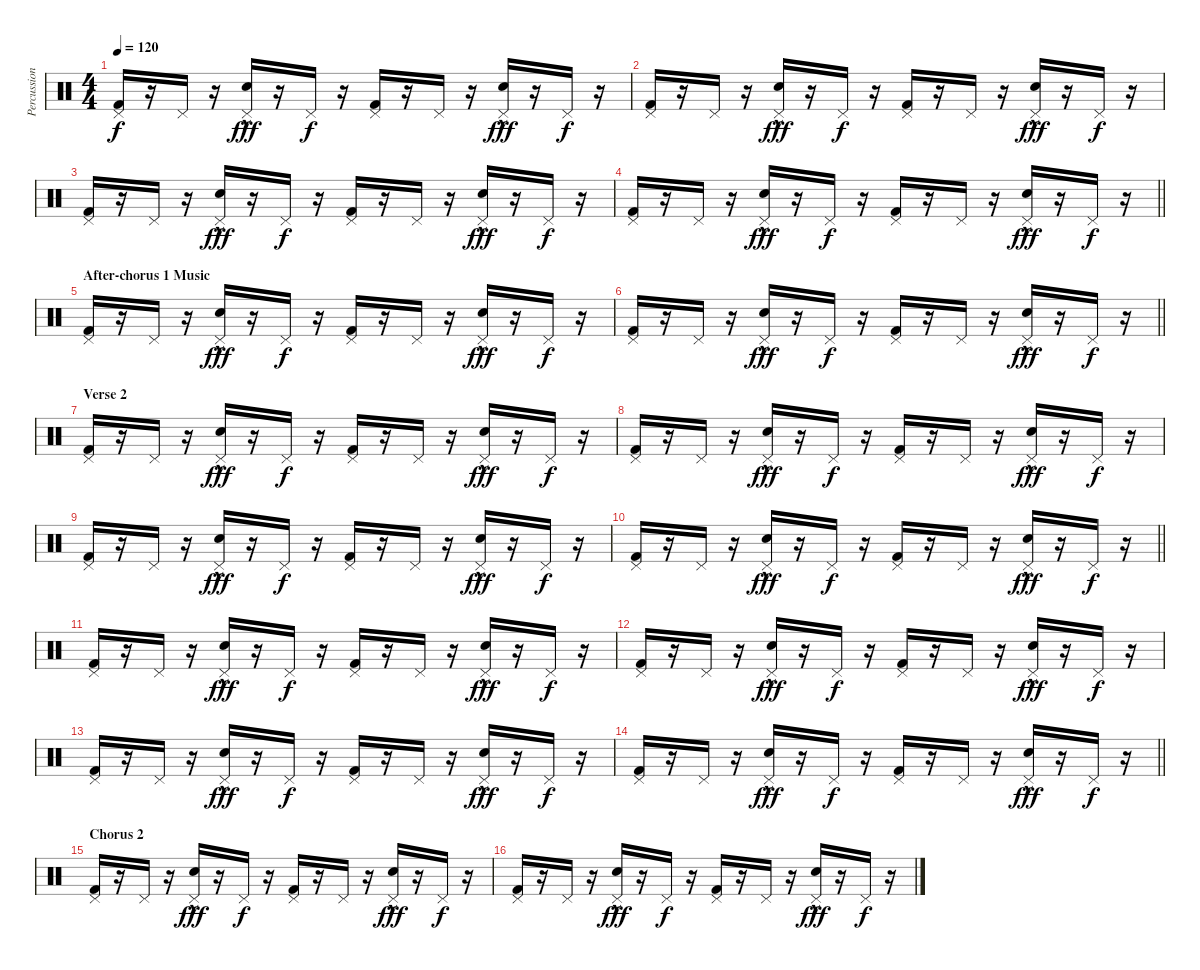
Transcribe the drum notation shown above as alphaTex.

\track ("Percussion" "Percussion") {instrument percussion}
\staff {score}
\articulation defaults
\ts (4 4)
\tempo 120
\clef neutral
\ks c
("Kick (hit) 2" "Pedal Hi-Hat (hit)").16{dy f} r.16 "Pedal Hi-Hat (hit)".16 r.16 ("Snare (hit) 2"{hac} "Pedal Hi-Hat (hit)").16{dy fff} r.16 "Pedal Hi-Hat (hit)".16{dy f} r.16 ("Kick (hit) 2" "Pedal Hi-Hat (hit)").16 r.16 "Pedal Hi-Hat (hit)".16 r.16 ("Snare (hit) 2"{hac} "Pedal Hi-Hat (hit)").16{dy fff} r.16 "Pedal Hi-Hat (hit)".16{dy f} r.16 |
("Kick (hit) 2" "Pedal Hi-Hat (hit)").16 r.16 "Pedal Hi-Hat (hit)".16 r.16 ("Snare (hit) 2"{hac} "Pedal Hi-Hat (hit)").16{dy fff} r.16 "Pedal Hi-Hat (hit)".16{dy f} r.16 ("Kick (hit) 2" "Pedal Hi-Hat (hit)").16 r.16 "Pedal Hi-Hat (hit)".16 r.16 ("Snare (hit) 2"{hac} "Pedal Hi-Hat (hit)").16{dy fff} r.16 "Pedal Hi-Hat (hit)".16{dy f} r.16 |
("Kick (hit) 2" "Pedal Hi-Hat (hit)").16 r.16 "Pedal Hi-Hat (hit)".16 r.16 ("Snare (hit) 2"{hac} "Pedal Hi-Hat (hit)").16{dy fff} r.16 "Pedal Hi-Hat (hit)".16{dy f} r.16 ("Kick (hit) 2" "Pedal Hi-Hat (hit)").16 r.16 "Pedal Hi-Hat (hit)".16 r.16 ("Snare (hit) 2"{hac} "Pedal Hi-Hat (hit)").16{dy fff} r.16 "Pedal Hi-Hat (hit)".16{dy f} r.16 |
\barLineRight lightlight
("Kick (hit) 2" "Pedal Hi-Hat (hit)").16 r.16 "Pedal Hi-Hat (hit)".16 r.16 ("Snare (hit) 2"{hac} "Pedal Hi-Hat (hit)").16{dy fff} r.16 "Pedal Hi-Hat (hit)".16{dy f} r.16 ("Kick (hit) 2" "Pedal Hi-Hat (hit)").16 r.16 "Pedal Hi-Hat (hit)".16 r.16 ("Snare (hit) 2"{hac} "Pedal Hi-Hat (hit)").16{dy fff} r.16 "Pedal Hi-Hat (hit)".16{dy f} r.16 |
\section ("" "After-chorus 1 Music")
("Kick (hit) 2" "Pedal Hi-Hat (hit)").16 r.16 "Pedal Hi-Hat (hit)".16 r.16 ("Snare (hit) 2"{hac} "Pedal Hi-Hat (hit)").16{dy fff} r.16 "Pedal Hi-Hat (hit)".16{dy f} r.16 ("Kick (hit) 2" "Pedal Hi-Hat (hit)").16 r.16 "Pedal Hi-Hat (hit)".16 r.16 ("Snare (hit) 2"{hac} "Pedal Hi-Hat (hit)").16{dy fff} r.16 "Pedal Hi-Hat (hit)".16{dy f} r.16 |
\barLineRight lightlight
("Kick (hit) 2" "Pedal Hi-Hat (hit)").16 r.16 "Pedal Hi-Hat (hit)".16 r.16 ("Snare (hit) 2"{hac} "Pedal Hi-Hat (hit)").16{dy fff} r.16 "Pedal Hi-Hat (hit)".16{dy f} r.16 ("Kick (hit) 2" "Pedal Hi-Hat (hit)").16 r.16 "Pedal Hi-Hat (hit)".16 r.16 ("Snare (hit) 2"{hac} "Pedal Hi-Hat (hit)").16{dy fff} r.16 "Pedal Hi-Hat (hit)".16{dy f} r.16 |
\section ("" "Verse 2")
("Kick (hit) 2" "Pedal Hi-Hat (hit)").16 r.16 "Pedal Hi-Hat (hit)".16 r.16 ("Snare (hit) 2"{hac} "Pedal Hi-Hat (hit)").16{dy fff} r.16 "Pedal Hi-Hat (hit)".16{dy f} r.16 ("Kick (hit) 2" "Pedal Hi-Hat (hit)").16 r.16 "Pedal Hi-Hat (hit)".16 r.16 ("Snare (hit) 2"{hac} "Pedal Hi-Hat (hit)").16{dy fff} r.16 "Pedal Hi-Hat (hit)".16{dy f} r.16 |
("Kick (hit) 2" "Pedal Hi-Hat (hit)").16 r.16 "Pedal Hi-Hat (hit)".16 r.16 ("Snare (hit) 2"{hac} "Pedal Hi-Hat (hit)").16{dy fff} r.16 "Pedal Hi-Hat (hit)".16{dy f} r.16 ("Kick (hit) 2" "Pedal Hi-Hat (hit)").16 r.16 "Pedal Hi-Hat (hit)".16 r.16 ("Snare (hit) 2"{hac} "Pedal Hi-Hat (hit)").16{dy fff} r.16 "Pedal Hi-Hat (hit)".16{dy f} r.16 |
("Kick (hit) 2" "Pedal Hi-Hat (hit)").16 r.16 "Pedal Hi-Hat (hit)".16 r.16 ("Snare (hit) 2"{hac} "Pedal Hi-Hat (hit)").16{dy fff} r.16 "Pedal Hi-Hat (hit)".16{dy f} r.16 ("Kick (hit) 2" "Pedal Hi-Hat (hit)").16 r.16 "Pedal Hi-Hat (hit)".16 r.16 ("Snare (hit) 2"{hac} "Pedal Hi-Hat (hit)").16{dy fff} r.16 "Pedal Hi-Hat (hit)".16{dy f} r.16 |
\barLineRight lightlight
("Kick (hit) 2" "Pedal Hi-Hat (hit)").16 r.16 "Pedal Hi-Hat (hit)".16 r.16 ("Snare (hit) 2"{hac} "Pedal Hi-Hat (hit)").16{dy fff} r.16 "Pedal Hi-Hat (hit)".16{dy f} r.16 ("Kick (hit) 2" "Pedal Hi-Hat (hit)").16 r.16 "Pedal Hi-Hat (hit)".16 r.16 ("Snare (hit) 2"{hac} "Pedal Hi-Hat (hit)").16{dy fff} r.16 "Pedal Hi-Hat (hit)".16{dy f} r.16 |
("Kick (hit) 2" "Pedal Hi-Hat (hit)").16 r.16 "Pedal Hi-Hat (hit)".16 r.16 ("Snare (hit) 2"{hac} "Pedal Hi-Hat (hit)").16{dy fff} r.16 "Pedal Hi-Hat (hit)".16{dy f} r.16 ("Kick (hit) 2" "Pedal Hi-Hat (hit)").16 r.16 "Pedal Hi-Hat (hit)".16 r.16 ("Snare (hit) 2"{hac} "Pedal Hi-Hat (hit)").16{dy fff} r.16 "Pedal Hi-Hat (hit)".16{dy f} r.16 |
("Kick (hit) 2" "Pedal Hi-Hat (hit)").16 r.16 "Pedal Hi-Hat (hit)".16 r.16 ("Snare (hit) 2"{hac} "Pedal Hi-Hat (hit)").16{dy fff} r.16 "Pedal Hi-Hat (hit)".16{dy f} r.16 ("Kick (hit) 2" "Pedal Hi-Hat (hit)").16 r.16 "Pedal Hi-Hat (hit)".16 r.16 ("Snare (hit) 2"{hac} "Pedal Hi-Hat (hit)").16{dy fff} r.16 "Pedal Hi-Hat (hit)".16{dy f} r.16 |
("Kick (hit) 2" "Pedal Hi-Hat (hit)").16 r.16 "Pedal Hi-Hat (hit)".16 r.16 ("Snare (hit) 2"{hac} "Pedal Hi-Hat (hit)").16{dy fff} r.16 "Pedal Hi-Hat (hit)".16{dy f} r.16 ("Kick (hit) 2" "Pedal Hi-Hat (hit)").16 r.16 "Pedal Hi-Hat (hit)".16 r.16 ("Snare (hit) 2"{hac} "Pedal Hi-Hat (hit)").16{dy fff} r.16 "Pedal Hi-Hat (hit)".16{dy f} r.16 |
\barLineRight lightlight
("Kick (hit) 2" "Pedal Hi-Hat (hit)").16 r.16 "Pedal Hi-Hat (hit)".16 r.16 ("Snare (hit) 2"{hac} "Pedal Hi-Hat (hit)").16{dy fff} r.16 "Pedal Hi-Hat (hit)".16{dy f} r.16 ("Kick (hit) 2" "Pedal Hi-Hat (hit)").16 r.16 "Pedal Hi-Hat (hit)".16 r.16 ("Snare (hit) 2"{hac} "Pedal Hi-Hat (hit)").16{dy fff} r.16 "Pedal Hi-Hat (hit)".16{dy f} r.16 |
\section ("" "Chorus 2")
("Kick (hit) 2" "Pedal Hi-Hat (hit)").16 r.16 "Pedal Hi-Hat (hit)".16 r.16 ("Snare (hit) 2"{hac} "Pedal Hi-Hat (hit)").16{dy fff} r.16 "Pedal Hi-Hat (hit)".16{dy f} r.16 ("Kick (hit) 2" "Pedal Hi-Hat (hit)").16 r.16 "Pedal Hi-Hat (hit)".16 r.16 ("Snare (hit) 2"{hac} "Pedal Hi-Hat (hit)").16{dy fff} r.16 "Pedal Hi-Hat (hit)".16{dy f} r.16 |
("Kick (hit) 2" "Pedal Hi-Hat (hit)").16 r.16 "Pedal Hi-Hat (hit)".16 r.16 ("Snare (hit) 2"{hac} "Pedal Hi-Hat (hit)").16{dy fff} r.16 "Pedal Hi-Hat (hit)".16{dy f} r.16 ("Kick (hit) 2" "Pedal Hi-Hat (hit)").16 r.16 "Pedal Hi-Hat (hit)".16 r.16 ("Snare (hit) 2"{hac} "Pedal Hi-Hat (hit)").16{dy fff} r.16 "Pedal Hi-Hat (hit)".16{dy f} r.16
